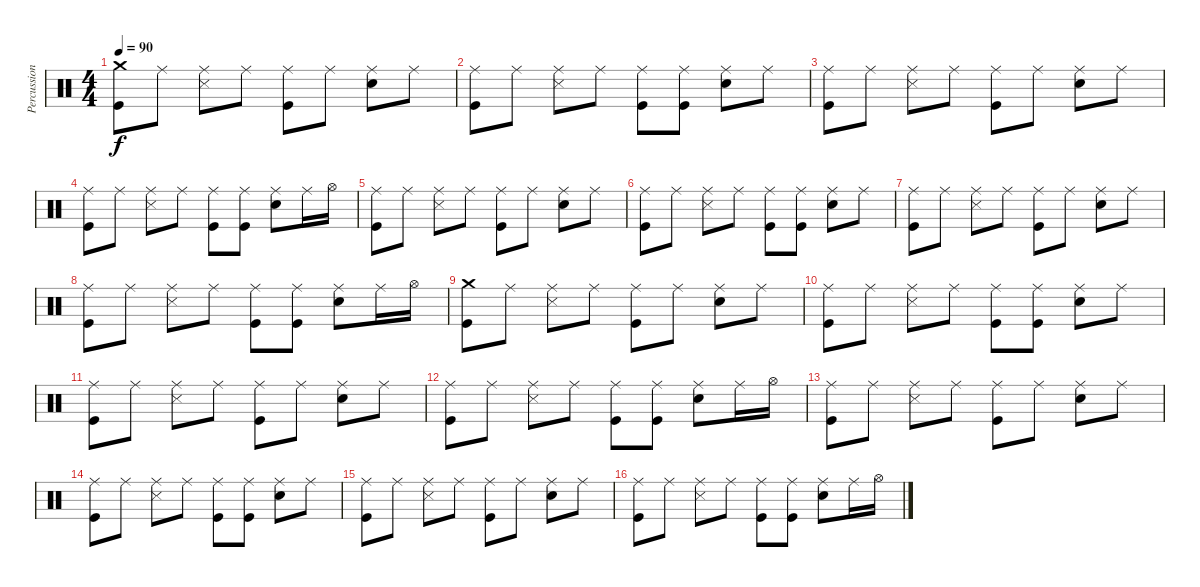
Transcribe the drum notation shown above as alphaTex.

\track ("Percussion" "Percussion") {instrument percussion}
\staff {score}
\articulation defaults
\ts (4 4)
\tempo 90
\clef neutral
\ks c
("Kick (hit)" "Crash medium (hit)").8{dy f} "Ride (middle)".8 ("Ride (middle)" "Snare (side stick) 3").8 "Ride (middle)".8 ("Ride (middle)" "Kick (hit)").8 "Ride (middle)".8 ("Ride (middle)" "Electric Snare (hit)").8 "Ride (middle)".8 |
("Ride (middle)" "Kick (hit)").8 "Ride (middle)".8 ("Ride (middle)" "Snare (side stick) 3").8 "Ride (middle)".8 ("Ride (middle)" "Kick (hit)").8 ("Ride (middle)" "Kick (hit)").8 ("Ride (middle)" "Electric Snare (hit)").8 "Ride (middle)".8 |
("Ride (middle)" "Kick (hit)").8 "Ride (middle)".8 ("Ride (middle)" "Snare (side stick) 3").8 "Ride (middle)".8 ("Ride (middle)" "Kick (hit)").8 "Ride (middle)".8 ("Ride (middle)" "Electric Snare (hit)").8 "Ride (middle)".8 |
("Ride (middle)" "Kick (hit)").8 "Ride (middle)".8 ("Ride (middle)" "Snare (side stick) 3").8 "Ride (middle)".8 ("Ride (middle)" "Kick (hit)").8 ("Ride (middle)" "Kick (hit)").8 ("Ride (middle)" "Electric Snare (hit)").8 "Ride (middle)".16 "Hi-Hat (open)".16 |
("Ride (middle)" "Kick (hit)").8 "Ride (middle)".8 ("Ride (middle)" "Snare (side stick) 3").8 "Ride (middle)".8 ("Ride (middle)" "Kick (hit)").8 "Ride (middle)".8 ("Ride (middle)" "Electric Snare (hit)").8 "Ride (middle)".8 |
("Ride (middle)" "Kick (hit)").8 "Ride (middle)".8 ("Ride (middle)" "Snare (side stick) 3").8 "Ride (middle)".8 ("Ride (middle)" "Kick (hit)").8 ("Ride (middle)" "Kick (hit)").8 ("Ride (middle)" "Electric Snare (hit)").8 "Ride (middle)".8 |
("Ride (middle)" "Kick (hit)").8 "Ride (middle)".8 ("Ride (middle)" "Snare (side stick) 3").8 "Ride (middle)".8 ("Ride (middle)" "Kick (hit)").8 "Ride (middle)".8 ("Ride (middle)" "Electric Snare (hit)").8 "Ride (middle)".8 |
("Ride (middle)" "Kick (hit)").8 "Ride (middle)".8 ("Ride (middle)" "Snare (side stick) 3").8 "Ride (middle)".8 ("Ride (middle)" "Kick (hit)").8 ("Ride (middle)" "Kick (hit)").8 ("Ride (middle)" "Electric Snare (hit)").8 "Ride (middle)".16 "Hi-Hat (open)".16 |
("Kick (hit)" "Crash medium (hit)").8 "Ride (middle)".8 ("Ride (middle)" "Snare (side stick) 3").8 "Ride (middle)".8 ("Ride (middle)" "Kick (hit)").8 "Ride (middle)".8 ("Ride (middle)" "Electric Snare (hit)").8 "Ride (middle)".8 |
("Ride (middle)" "Kick (hit)").8 "Ride (middle)".8 ("Ride (middle)" "Snare (side stick) 3").8 "Ride (middle)".8 ("Ride (middle)" "Kick (hit)").8 ("Ride (middle)" "Kick (hit)").8 ("Ride (middle)" "Electric Snare (hit)").8 "Ride (middle)".8 |
("Ride (middle)" "Kick (hit)").8 "Ride (middle)".8 ("Ride (middle)" "Snare (side stick) 3").8 "Ride (middle)".8 ("Ride (middle)" "Kick (hit)").8 "Ride (middle)".8 ("Ride (middle)" "Electric Snare (hit)").8 "Ride (middle)".8 |
("Ride (middle)" "Kick (hit)").8 "Ride (middle)".8 ("Ride (middle)" "Snare (side stick) 3").8 "Ride (middle)".8 ("Ride (middle)" "Kick (hit)").8 ("Ride (middle)" "Kick (hit)").8 ("Ride (middle)" "Electric Snare (hit)").8 "Ride (middle)".16 "Hi-Hat (open)".16 |
("Ride (middle)" "Kick (hit)").8 "Ride (middle)".8 ("Ride (middle)" "Snare (side stick) 3").8 "Ride (middle)".8 ("Ride (middle)" "Kick (hit)").8 "Ride (middle)".8 ("Ride (middle)" "Electric Snare (hit)").8 "Ride (middle)".8 |
("Ride (middle)" "Kick (hit)").8 "Ride (middle)".8 ("Ride (middle)" "Snare (side stick) 3").8 "Ride (middle)".8 ("Ride (middle)" "Kick (hit)").8 ("Ride (middle)" "Kick (hit)").8 ("Ride (middle)" "Electric Snare (hit)").8 "Ride (middle)".8 |
("Ride (middle)" "Kick (hit)").8 "Ride (middle)".8 ("Ride (middle)" "Snare (side stick) 3").8 "Ride (middle)".8 ("Ride (middle)" "Kick (hit)").8 "Ride (middle)".8 ("Ride (middle)" "Electric Snare (hit)").8 "Ride (middle)".8 |
("Ride (middle)" "Kick (hit)").8 "Ride (middle)".8 ("Ride (middle)" "Snare (side stick) 3").8 "Ride (middle)".8 ("Ride (middle)" "Kick (hit)").8 ("Ride (middle)" "Kick (hit)").8 ("Ride (middle)" "Electric Snare (hit)").8 "Ride (middle)".16 "Hi-Hat (open)".16
